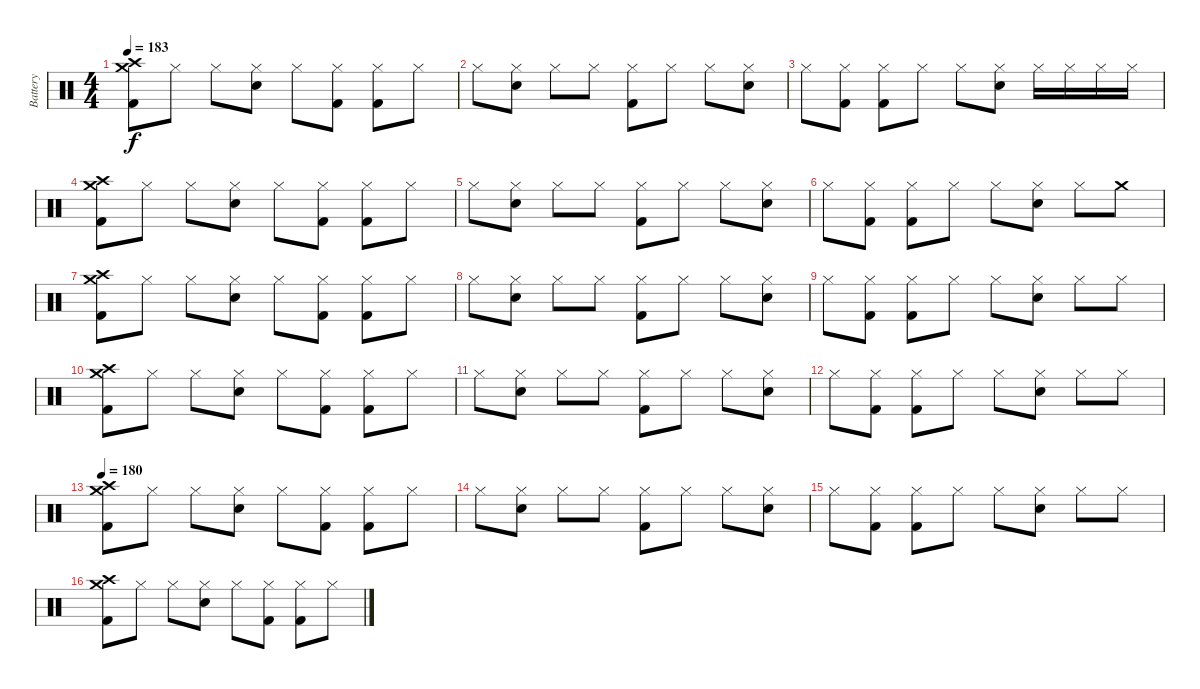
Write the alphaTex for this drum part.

\track ("Battery" "Battery") {instrument percussion}
\staff {score}
\articulation defaults
\ts (4 4)
\tempo 183
\clef neutral
\ks c
("Crash medium (hit)" "Crash high (hit)" "Kick (hit) 2").8{dy f} "Hi-Hat (closed)".8 "Hi-Hat (closed)".8 ("Hi-Hat (closed)" "Snare (hit) 2").8 "Hi-Hat (closed)".8 ("Hi-Hat (closed)" "Kick (hit) 2").8 ("Hi-Hat (closed)" "Kick (hit) 2").8 "Hi-Hat (closed)".8 |
"Hi-Hat (closed)".8 ("Hi-Hat (closed)" "Snare (hit) 2").8 "Hi-Hat (closed)".8 "Hi-Hat (closed)".8 ("Hi-Hat (closed)" "Kick (hit) 2").8 "Hi-Hat (closed)".8 "Hi-Hat (closed)".8 ("Hi-Hat (closed)" "Snare (hit) 2").8 |
"Hi-Hat (closed)".8 ("Hi-Hat (closed)" "Kick (hit) 2").8 ("Hi-Hat (closed)" "Kick (hit) 2").8 "Hi-Hat (closed)".8 "Hi-Hat (closed)".8 ("Hi-Hat (closed)" "Snare (hit) 2").8 "Hi-Hat (closed)".16 "Hi-Hat (closed)".16 "Hi-Hat (closed)".16 "Hi-Hat (closed)".16 |
("Crash medium (hit)" "Crash high (hit)" "Kick (hit) 2").8 "Hi-Hat (closed)".8 "Hi-Hat (closed)".8 ("Hi-Hat (closed)" "Snare (hit) 2").8 "Hi-Hat (closed)".8 ("Hi-Hat (closed)" "Kick (hit) 2").8 ("Hi-Hat (closed)" "Kick (hit) 2").8 "Hi-Hat (closed)".8 |
"Hi-Hat (closed)".8 ("Hi-Hat (closed)" "Snare (hit) 2").8 "Hi-Hat (closed)".8 "Hi-Hat (closed)".8 ("Hi-Hat (closed)" "Kick (hit) 2").8 "Hi-Hat (closed)".8 "Hi-Hat (closed)".8 ("Hi-Hat (closed)" "Snare (hit) 2").8 |
"Hi-Hat (closed)".8 ("Hi-Hat (closed)" "Kick (hit) 2").8 ("Hi-Hat (closed)" "Kick (hit) 2").8 "Hi-Hat (closed)".8 "Hi-Hat (closed)".8 ("Hi-Hat (closed)" "Snare (hit) 2").8 "Hi-Hat (closed)".8 "Crash medium (hit)".8 |
("Crash medium (hit)" "Crash high (hit)" "Kick (hit) 2").8 "Hi-Hat (closed)".8 "Hi-Hat (closed)".8 ("Hi-Hat (closed)" "Snare (hit) 2").8 "Hi-Hat (closed)".8 ("Hi-Hat (closed)" "Kick (hit) 2").8 ("Hi-Hat (closed)" "Kick (hit) 2").8 "Hi-Hat (closed)".8 |
"Hi-Hat (closed)".8 ("Hi-Hat (closed)" "Snare (hit) 2").8 "Hi-Hat (closed)".8 "Hi-Hat (closed)".8 ("Hi-Hat (closed)" "Kick (hit) 2").8 "Hi-Hat (closed)".8 "Hi-Hat (closed)".8 ("Hi-Hat (closed)" "Snare (hit) 2").8 |
"Hi-Hat (closed)".8 ("Hi-Hat (closed)" "Kick (hit) 2").8 ("Hi-Hat (closed)" "Kick (hit) 2").8 "Hi-Hat (closed)".8 "Hi-Hat (closed)".8 ("Hi-Hat (closed)" "Snare (hit) 2").8 "Hi-Hat (closed)".8 "Hi-Hat (closed)".8 |
("Crash medium (hit)" "Crash high (hit)" "Kick (hit) 2").8 "Hi-Hat (closed)".8 "Hi-Hat (closed)".8 ("Hi-Hat (closed)" "Snare (hit) 2").8 "Hi-Hat (closed)".8 ("Hi-Hat (closed)" "Kick (hit) 2").8 ("Hi-Hat (closed)" "Kick (hit) 2").8 "Hi-Hat (closed)".8 |
"Hi-Hat (closed)".8 ("Hi-Hat (closed)" "Snare (hit) 2").8 "Hi-Hat (closed)".8 "Hi-Hat (closed)".8 ("Hi-Hat (closed)" "Kick (hit) 2").8 "Hi-Hat (closed)".8 "Hi-Hat (closed)".8 ("Hi-Hat (closed)" "Snare (hit) 2").8 |
"Hi-Hat (closed)".8 ("Hi-Hat (closed)" "Kick (hit) 2").8 ("Hi-Hat (closed)" "Kick (hit) 2").8 "Hi-Hat (closed)".8 "Hi-Hat (closed)".8 ("Hi-Hat (closed)" "Snare (hit) 2").8 "Hi-Hat (closed)".8 "Hi-Hat (closed)".8 |
\tempo 180
("Crash medium (hit)" "Crash high (hit)" "Kick (hit) 2").8 "Hi-Hat (closed)".8 "Hi-Hat (closed)".8 ("Hi-Hat (closed)" "Snare (hit) 2").8 "Hi-Hat (closed)".8 ("Hi-Hat (closed)" "Kick (hit) 2").8 ("Hi-Hat (closed)" "Kick (hit) 2").8 "Hi-Hat (closed)".8 |
"Hi-Hat (closed)".8 ("Hi-Hat (closed)" "Snare (hit) 2").8 "Hi-Hat (closed)".8 "Hi-Hat (closed)".8 ("Hi-Hat (closed)" "Kick (hit) 2").8 "Hi-Hat (closed)".8 "Hi-Hat (closed)".8 ("Hi-Hat (closed)" "Snare (hit) 2").8 |
"Hi-Hat (closed)".8 ("Hi-Hat (closed)" "Kick (hit) 2").8 ("Hi-Hat (closed)" "Kick (hit) 2").8 "Hi-Hat (closed)".8 "Hi-Hat (closed)".8 ("Hi-Hat (closed)" "Snare (hit) 2").8 "Hi-Hat (closed)".8 "Hi-Hat (closed)".8 |
("Crash medium (hit)" "Crash high (hit)" "Kick (hit) 2").8 "Hi-Hat (closed)".8 "Hi-Hat (closed)".8 ("Hi-Hat (closed)" "Snare (hit) 2").8 "Hi-Hat (closed)".8 ("Hi-Hat (closed)" "Kick (hit) 2").8 ("Hi-Hat (closed)" "Kick (hit) 2").8 "Hi-Hat (closed)".8
